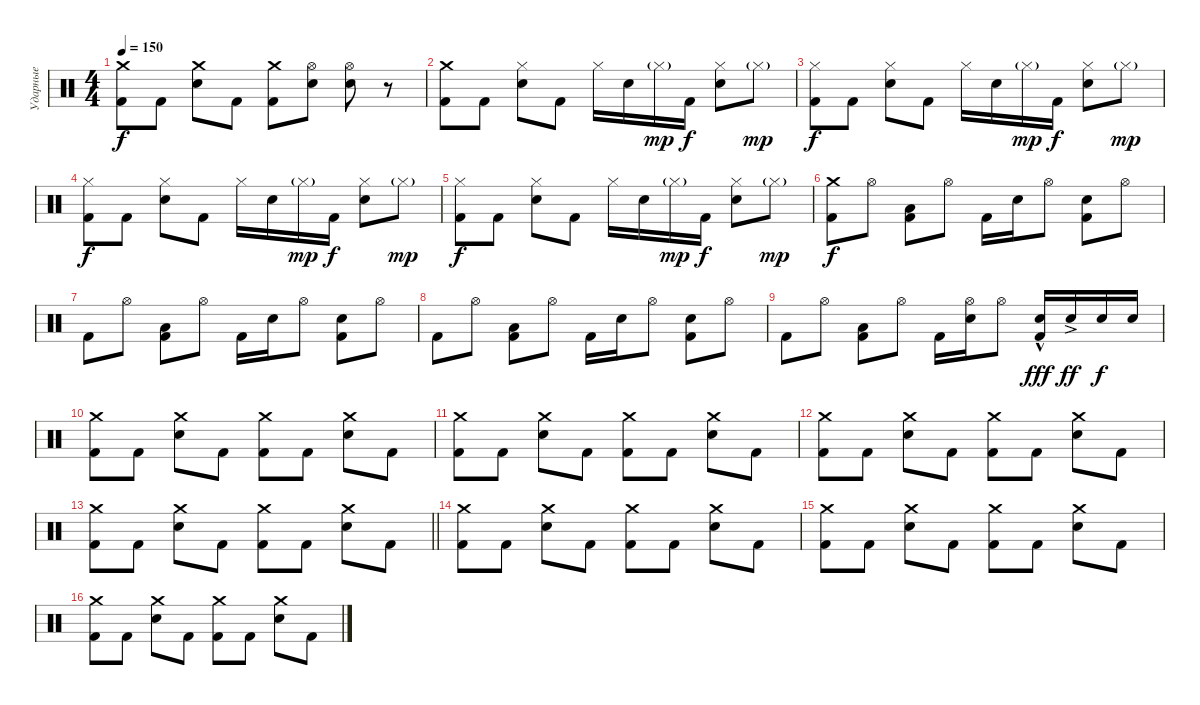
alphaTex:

\track ("Ударные" "Ударные") {instrument percussion}
\staff {score}
\articulation defaults
\ts (4 4)
\tempo 150
\clef neutral
\ks c
("Crash medium (hit)" "Kick (hit) 2").8{dy f} "Kick (hit) 2".8 ("Crash medium (hit)" "Snare (hit) 2").8 "Kick (hit) 2".8 ("Crash medium (hit)" "Kick (hit) 2").8 ("Hi-Hat (open)" "Snare (hit) 2").8 ("Hi-Hat (open)" "Snare (hit) 2").8 r.8 |
("Crash medium (hit)" "Kick (hit) 2").8 "Kick (hit) 2".8 ("Snare (hit) 2" "Hi-Hat (closed)").8 "Kick (hit) 2".8 "Hi-Hat (closed)".16 "Snare (hit) 2".16 "Hi-Hat (closed)"{g}.16{dy mp} "Kick (hit) 2".16{dy f} ("Snare (hit) 2" "Hi-Hat (closed)").8 "Hi-Hat (closed)"{g}.8{dy mp} |
("Hi-Hat (closed)" "Kick (hit) 2").8{dy f} "Kick (hit) 2".8 ("Snare (hit) 2" "Hi-Hat (closed)").8 "Kick (hit) 2".8 "Hi-Hat (closed)".16 "Snare (hit) 2".16 "Hi-Hat (closed)"{g}.16{dy mp} "Kick (hit) 2".16{dy f} ("Snare (hit) 2" "Hi-Hat (closed)").8 "Hi-Hat (closed)"{g}.8{dy mp} |
("Hi-Hat (closed)" "Kick (hit) 2").8{dy f} "Kick (hit) 2".8 ("Snare (hit) 2" "Hi-Hat (closed)").8 "Kick (hit) 2".8 "Hi-Hat (closed)".16 "Snare (hit) 2".16 "Hi-Hat (closed)"{g}.16{dy mp} "Kick (hit) 2".16{dy f} ("Snare (hit) 2" "Hi-Hat (closed)").8 "Hi-Hat (closed)"{g}.8{dy mp} |
("Hi-Hat (closed)" "Kick (hit) 2").8{dy f} "Kick (hit) 2".8 ("Snare (hit) 2" "Hi-Hat (closed)").8 "Kick (hit) 2".8 "Hi-Hat (closed)".16 "Snare (hit) 2".16 "Hi-Hat (closed)"{g}.16{dy mp} "Kick (hit) 2".16{dy f} ("Snare (hit) 2" "Hi-Hat (closed)").8 "Hi-Hat (closed)"{g}.8{dy mp} |
("Crash medium (hit)" "Kick (hit) 2").8{dy f} "Hi-Hat (open)".8 ("Low Tom (hit)" "Kick (hit) 2").8 "Hi-Hat (open)".8 "Kick (hit) 2".16 "Snare (hit) 2".16 "Hi-Hat (open)".8 ("Snare (hit) 2" "Kick (hit) 2").8 "Hi-Hat (open)".8 |
"Kick (hit) 2".8 "Hi-Hat (open)".8 ("Low Tom (hit)" "Kick (hit) 2").8 "Hi-Hat (open)".8 "Kick (hit) 2".16 "Snare (hit) 2".16 "Hi-Hat (open)".8 ("Snare (hit) 2" "Kick (hit) 2").8 "Hi-Hat (open)".8 |
"Kick (hit) 2".8 "Hi-Hat (open)".8 ("Low Tom (hit)" "Kick (hit) 2").8 "Hi-Hat (open)".8 "Kick (hit) 2".16 "Snare (hit) 2".16 "Hi-Hat (open)".8 ("Snare (hit) 2" "Kick (hit) 2").8 "Hi-Hat (open)".8 |
"Kick (hit) 2".8 "Hi-Hat (open)".8 ("Low Tom (hit)" "Kick (hit) 2").8 "Hi-Hat (open)".8 "Kick (hit) 2".16 ("Snare (hit) 2" "Hi-Hat (open)").16 "Hi-Hat (open)".8 ("Snare (hit) 2"{hac} "Kick (hit) 2").16{dy fff} "Snare (hit) 2"{ac}.16{dy ff} "Snare (hit) 2".16{dy f} "Snare (hit) 2".16 |
("Crash medium (hit)" "Kick (hit) 2").8 "Kick (hit) 2".8 ("Crash medium (hit)" "Snare (hit) 2").8 "Kick (hit) 2".8 ("Crash medium (hit)" "Kick (hit) 2").8 "Kick (hit) 2".8 ("Crash medium (hit)" "Snare (hit) 2").8 "Kick (hit) 2".8 |
("Crash medium (hit)" "Kick (hit) 2").8 "Kick (hit) 2".8 ("Crash medium (hit)" "Snare (hit) 2").8 "Kick (hit) 2".8 ("Crash medium (hit)" "Kick (hit) 2").8 "Kick (hit) 2".8 ("Crash medium (hit)" "Snare (hit) 2").8 "Kick (hit) 2".8 |
("Crash medium (hit)" "Kick (hit) 2").8 "Kick (hit) 2".8 ("Crash medium (hit)" "Snare (hit) 2").8 "Kick (hit) 2".8 ("Crash medium (hit)" "Kick (hit) 2").8 "Kick (hit) 2".8 ("Crash medium (hit)" "Snare (hit) 2").8 "Kick (hit) 2".8 |
\barLineRight lightlight
("Crash medium (hit)" "Kick (hit) 2").8 "Kick (hit) 2".8 ("Crash medium (hit)" "Snare (hit) 2").8 "Kick (hit) 2".8 ("Crash medium (hit)" "Kick (hit) 2").8 "Kick (hit) 2".8 ("Crash medium (hit)" "Snare (hit) 2").8 "Kick (hit) 2".8 |
("Crash medium (hit)" "Kick (hit) 2").8 "Kick (hit) 2".8 ("Crash medium (hit)" "Snare (hit) 2").8 "Kick (hit) 2".8 ("Crash medium (hit)" "Kick (hit) 2").8 "Kick (hit) 2".8 ("Crash medium (hit)" "Snare (hit) 2").8 "Kick (hit) 2".8 |
("Crash medium (hit)" "Kick (hit) 2").8 "Kick (hit) 2".8 ("Crash medium (hit)" "Snare (hit) 2").8 "Kick (hit) 2".8 ("Crash medium (hit)" "Kick (hit) 2").8 "Kick (hit) 2".8 ("Crash medium (hit)" "Snare (hit) 2").8 "Kick (hit) 2".8 |
("Crash medium (hit)" "Kick (hit) 2").8 "Kick (hit) 2".8 ("Crash medium (hit)" "Snare (hit) 2").8 "Kick (hit) 2".8 ("Crash medium (hit)" "Kick (hit) 2").8 "Kick (hit) 2".8 ("Crash medium (hit)" "Snare (hit) 2").8 "Kick (hit) 2".8
